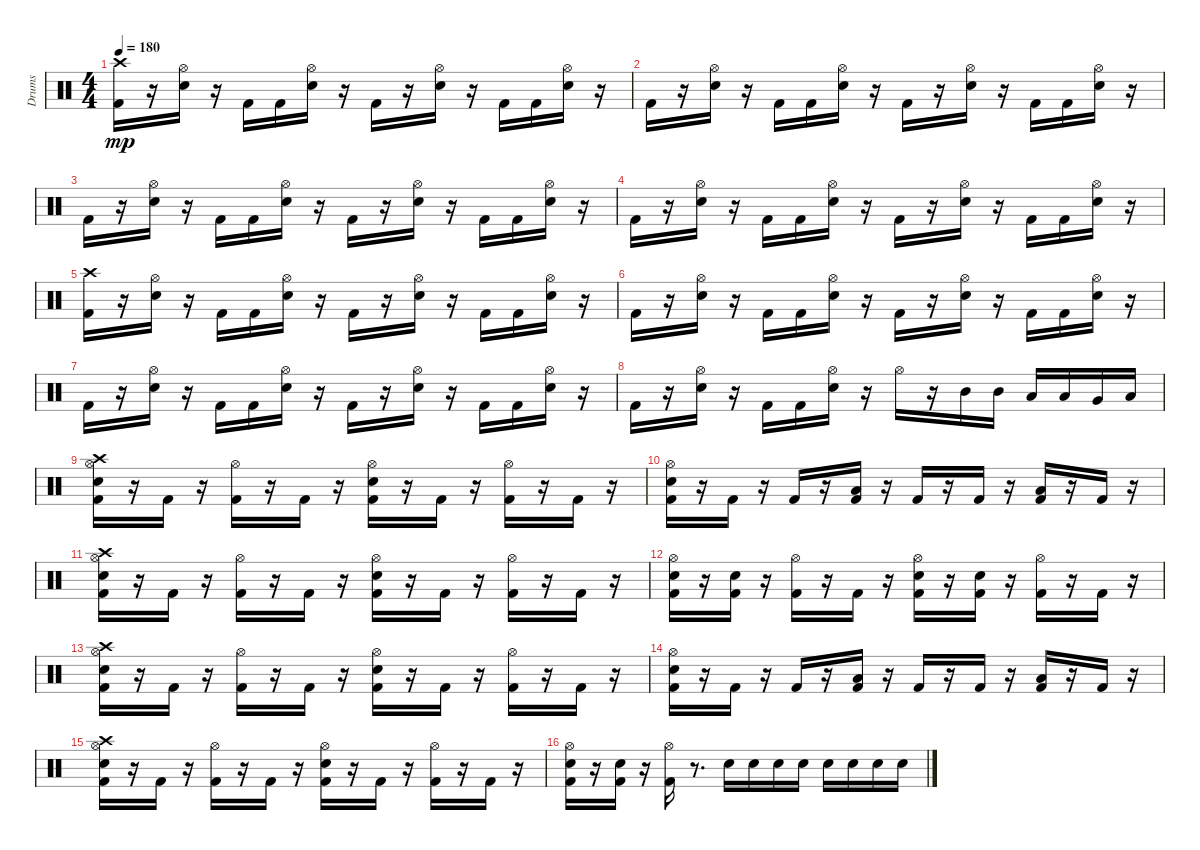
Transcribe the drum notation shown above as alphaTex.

\track ("Drums" "Drums") {instrument percussion}
\staff {score}
\articulation defaults
\ts (4 4)
\tempo 180
\clef neutral
\ks c
("Kick (hit) 2" "Crash high (hit)").16{dy mp} r.16 ("Electric Snare (hit)" "Hi-Hat (open)").16 r.16 "Kick (hit) 2".16 "Kick (hit) 2".16 ("Hi-Hat (open)" "Electric Snare (hit)").16 r.16 "Kick (hit) 2".16 r.16 ("Hi-Hat (open)" "Electric Snare (hit)").16 r.16 "Kick (hit) 2".16 "Kick (hit) 2".16 ("Hi-Hat (open)" "Electric Snare (hit)").16 r.16 |
"Kick (hit) 2".16 r.16 ("Electric Snare (hit)" "Hi-Hat (open)").16 r.16 "Kick (hit) 2".16 "Kick (hit) 2".16 ("Electric Snare (hit)" "Hi-Hat (open)").16 r.16 "Kick (hit) 2".16 r.16 ("Electric Snare (hit)" "Hi-Hat (open)").16 r.16 "Kick (hit) 2".16 "Kick (hit) 2".16 ("Electric Snare (hit)" "Hi-Hat (open)").16 r.16 |
"Kick (hit) 2".16 r.16 ("Electric Snare (hit)" "Hi-Hat (open)").16 r.16 "Kick (hit) 2".16 "Kick (hit) 2".16 ("Hi-Hat (open)" "Electric Snare (hit)").16 r.16 "Kick (hit) 2".16 r.16 ("Electric Snare (hit)" "Hi-Hat (open)").16 r.16 "Kick (hit) 2".16 "Kick (hit) 2".16 ("Electric Snare (hit)" "Hi-Hat (open)").16 r.16 |
"Kick (hit) 2".16 r.16 ("Electric Snare (hit)" "Hi-Hat (open)").16 r.16 "Kick (hit) 2".16 "Kick (hit) 2".16 ("Hi-Hat (open)" "Electric Snare (hit)").16 r.16 "Kick (hit) 2".16 r.16 ("Electric Snare (hit)" "Hi-Hat (open)").16 r.16 "Kick (hit) 2".16 "Kick (hit) 2".16 ("Hi-Hat (open)" "Electric Snare (hit)").16 r.16 |
("Crash high (hit)" "Kick (hit) 2").16 r.16 ("Hi-Hat (open)" "Electric Snare (hit)").16 r.16 "Kick (hit) 2".16 "Kick (hit) 2".16 ("Electric Snare (hit)" "Hi-Hat (open)").16 r.16 "Kick (hit) 2".16 r.16 ("Electric Snare (hit)" "Hi-Hat (open)").16 r.16 "Kick (hit) 2".16 "Kick (hit) 2".16 ("Electric Snare (hit)" "Hi-Hat (open)").16 r.16 |
"Kick (hit) 2".16 r.16 ("Hi-Hat (open)" "Electric Snare (hit)").16 r.16 "Kick (hit) 2".16 "Kick (hit) 2".16 ("Electric Snare (hit)" "Hi-Hat (open)").16 r.16 "Kick (hit) 2".16 r.16 ("Electric Snare (hit)" "Hi-Hat (open)").16 r.16 "Kick (hit) 2".16 "Kick (hit) 2".16 ("Hi-Hat (open)" "Electric Snare (hit)").16 r.16 |
"Kick (hit) 2".16 r.16 ("Electric Snare (hit)" "Hi-Hat (open)").16 r.16 "Kick (hit) 2".16 "Kick (hit) 2".16 ("Hi-Hat (open)" "Electric Snare (hit)").16 r.16 "Kick (hit) 2".16 r.16 ("Hi-Hat (open)" "Electric Snare (hit)").16 r.16 "Kick (hit) 2".16 "Kick (hit) 2".16 ("Hi-Hat (open)" "Electric Snare (hit)").16 r.16 |
"Kick (hit) 2".16 r.16 ("Electric Snare (hit)" "Hi-Hat (open)").16 r.16 "Kick (hit) 2".16 "Kick (hit) 2".16 ("Electric Snare (hit)" "Hi-Hat (open)").16 r.16 "Hi-Hat (open)".16 r.16 "Mid Tom (hit)".16 "Mid Tom (hit)".16 "Low Tom (hit)".16 "Low Tom (hit)".16 "Very Low Tom (hit)".16 "Low Floor Tom (hit)".16 |
("Electric Snare (hit)" "Hi-Hat (open)" "Kick (hit) 2" "Crash high (hit)").16 r.16 "Kick (hit) 2".16 r.16 ("Hi-Hat (open)" "Kick (hit) 2").16 r.16 "Kick (hit) 2".16 r.16 ("Hi-Hat (open)" "Electric Snare (hit)" "Kick (hit) 2").16 r.16 "Kick (hit) 2".16 r.16 ("Hi-Hat (open)" "Kick (hit) 2").16 r.16 "Kick (hit) 2".16 r.16 |
("Hi-Hat (open)" "Kick (hit) 2" "Electric Snare (hit)").16 r.16 "Kick (hit) 2".16 r.16 "Kick (hit) 2".16 r.16 ("Low Floor Tom (hit)" "Kick (hit) 2").16 r.16 "Kick (hit) 2".16 r.16 "Kick (hit) 2".16 r.16 ("Low Floor Tom (hit)" "Kick (hit) 2").16 r.16 "Kick (hit) 2".16 r.16 |
("Electric Snare (hit)" "Crash high (hit)" "Kick (hit) 2" "Hi-Hat (open)").16 r.16 "Kick (hit) 2".16 r.16 ("Kick (hit) 2" "Hi-Hat (open)").16 r.16 "Kick (hit) 2".16 r.16 ("Hi-Hat (open)" "Kick (hit) 2" "Electric Snare (hit)").16 r.16 "Kick (hit) 2".16 r.16 ("Hi-Hat (open)" "Kick (hit) 2").16 r.16 "Kick (hit) 2".16 r.16 |
("Kick (hit) 2" "Electric Snare (hit)" "Hi-Hat (open)").16 r.16 ("Electric Snare (hit)" "Kick (hit) 2").16 r.16 ("Kick (hit) 2" "Hi-Hat (open)").16 r.16 "Kick (hit) 2".16 r.16 ("Kick (hit) 2" "Hi-Hat (open)" "Electric Snare (hit)").16 r.16 ("Kick (hit) 2" "Electric Snare (hit)").16 r.16 ("Kick (hit) 2" "Hi-Hat (open)").16 r.16 "Kick (hit) 2".16 r.16 |
("Crash high (hit)" "Electric Snare (hit)" "Hi-Hat (open)" "Kick (hit) 2").16 r.16 "Kick (hit) 2".16 r.16 ("Kick (hit) 2" "Hi-Hat (open)").16 r.16 "Kick (hit) 2".16 r.16 ("Kick (hit) 2" "Hi-Hat (open)" "Electric Snare (hit)").16 r.16 "Kick (hit) 2".16 r.16 ("Kick (hit) 2" "Hi-Hat (open)").16 r.16 "Kick (hit) 2".16 r.16 |
("Kick (hit) 2" "Electric Snare (hit)" "Hi-Hat (open)").16 r.16 "Kick (hit) 2".16 r.16 "Kick (hit) 2".16 r.16 ("Low Floor Tom (hit)" "Kick (hit) 2").16 r.16 "Kick (hit) 2".16 r.16 "Kick (hit) 2".16 r.16 ("Low Floor Tom (hit)" "Kick (hit) 2").16 r.16 "Kick (hit) 2".16 r.16 |
("Kick (hit) 2" "Crash high (hit)" "Hi-Hat (open)" "Electric Snare (hit)").16 r.16 "Kick (hit) 2".16 r.16 ("Kick (hit) 2" "Hi-Hat (open)").16 r.16 "Kick (hit) 2".16 r.16 ("Electric Snare (hit)" "Kick (hit) 2" "Hi-Hat (open)").16 r.16 "Kick (hit) 2".16 r.16 ("Kick (hit) 2" "Hi-Hat (open)").16 r.16 "Kick (hit) 2".16 r.16 |
("Electric Snare (hit)" "Kick (hit) 2" "Hi-Hat (open)").16 r.16 ("Electric Snare (hit)" "Kick (hit) 2").16 r.16 ("Kick (hit) 2" "Hi-Hat (open)").16 r.8{d} "Electric Snare (hit)".16 "Electric Snare (hit)".16 "Electric Snare (hit)".16 "Electric Snare (hit)".16 "Electric Snare (hit)".16 "Electric Snare (hit)".16 "Electric Snare (hit)".16 "Electric Snare (hit)".16
